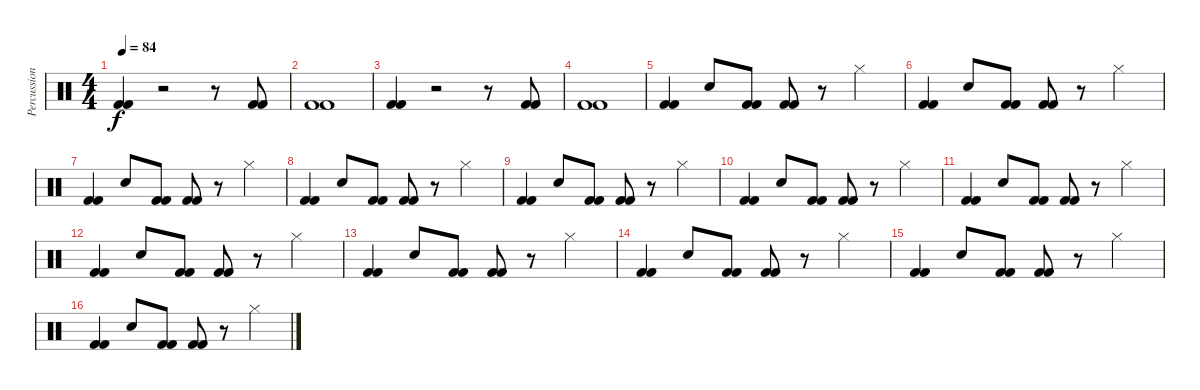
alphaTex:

\track ("Percussion" "Percussion") {instrument percussion}
\staff {score}
\articulation defaults
\ts (4 4)
\tempo 84
\clef neutral
\ks c
("Kick (hit) 2" "Kick (hit) 2").4{dy f} r.2 r.8 ("Kick (hit) 2" "Kick (hit) 2").8 |
("Kick (hit) 2" "Kick (hit) 2").1 |
("Kick (hit) 2" "Kick (hit) 2").4 r.2 r.8 ("Kick (hit) 2" "Kick (hit) 2").8 |
("Kick (hit) 2" "Kick (hit) 2").1 |
("Kick (hit) 2" "Kick (hit) 2").4 "Electric Snare (hit)".8 ("Kick (hit) 2" "Kick (hit) 2").8 ("Kick (hit) 2" "Kick (hit) 2").8 r.8 "Hi-Hat (closed)".4 |
("Kick (hit) 2" "Kick (hit) 2").4 "Electric Snare (hit)".8 ("Kick (hit) 2" "Kick (hit) 2").8 ("Kick (hit) 2" "Kick (hit) 2").8 r.8 "Hi-Hat (closed)".4 |
("Kick (hit) 2" "Kick (hit) 2").4 "Electric Snare (hit)".8 ("Kick (hit) 2" "Kick (hit) 2").8 ("Kick (hit) 2" "Kick (hit) 2").8 r.8 "Hi-Hat (closed)".4 |
("Kick (hit) 2" "Kick (hit) 2").4 "Electric Snare (hit)".8 ("Kick (hit) 2" "Kick (hit) 2").8 ("Kick (hit) 2" "Kick (hit) 2").8 r.8 "Hi-Hat (closed)".4 |
("Kick (hit) 2" "Kick (hit) 2").4 "Electric Snare (hit)".8 ("Kick (hit) 2" "Kick (hit) 2").8 ("Kick (hit) 2" "Kick (hit) 2").8 r.8 "Hi-Hat (closed)".4 |
("Kick (hit) 2" "Kick (hit) 2").4 "Electric Snare (hit)".8 ("Kick (hit) 2" "Kick (hit) 2").8 ("Kick (hit) 2" "Kick (hit) 2").8 r.8 "Hi-Hat (closed)".4 |
("Kick (hit) 2" "Kick (hit) 2").4 "Electric Snare (hit)".8 ("Kick (hit) 2" "Kick (hit) 2").8 ("Kick (hit) 2" "Kick (hit) 2").8 r.8 "Hi-Hat (closed)".4 |
("Kick (hit) 2" "Kick (hit) 2").4 "Electric Snare (hit)".8 ("Kick (hit) 2" "Kick (hit) 2").8 ("Kick (hit) 2" "Kick (hit) 2").8 r.8 "Hi-Hat (closed)".4 |
("Kick (hit) 2" "Kick (hit) 2").4 "Electric Snare (hit)".8 ("Kick (hit) 2" "Kick (hit) 2").8 ("Kick (hit) 2" "Kick (hit) 2").8 r.8 "Hi-Hat (closed)".4 |
("Kick (hit) 2" "Kick (hit) 2").4 "Electric Snare (hit)".8 ("Kick (hit) 2" "Kick (hit) 2").8 ("Kick (hit) 2" "Kick (hit) 2").8 r.8 "Hi-Hat (closed)".4 |
("Kick (hit) 2" "Kick (hit) 2").4 "Electric Snare (hit)".8 ("Kick (hit) 2" "Kick (hit) 2").8 ("Kick (hit) 2" "Kick (hit) 2").8 r.8 "Hi-Hat (closed)".4 |
("Kick (hit) 2" "Kick (hit) 2").4 "Electric Snare (hit)".8 ("Kick (hit) 2" "Kick (hit) 2").8 ("Kick (hit) 2" "Kick (hit) 2").8 r.8 "Hi-Hat (closed)".4
